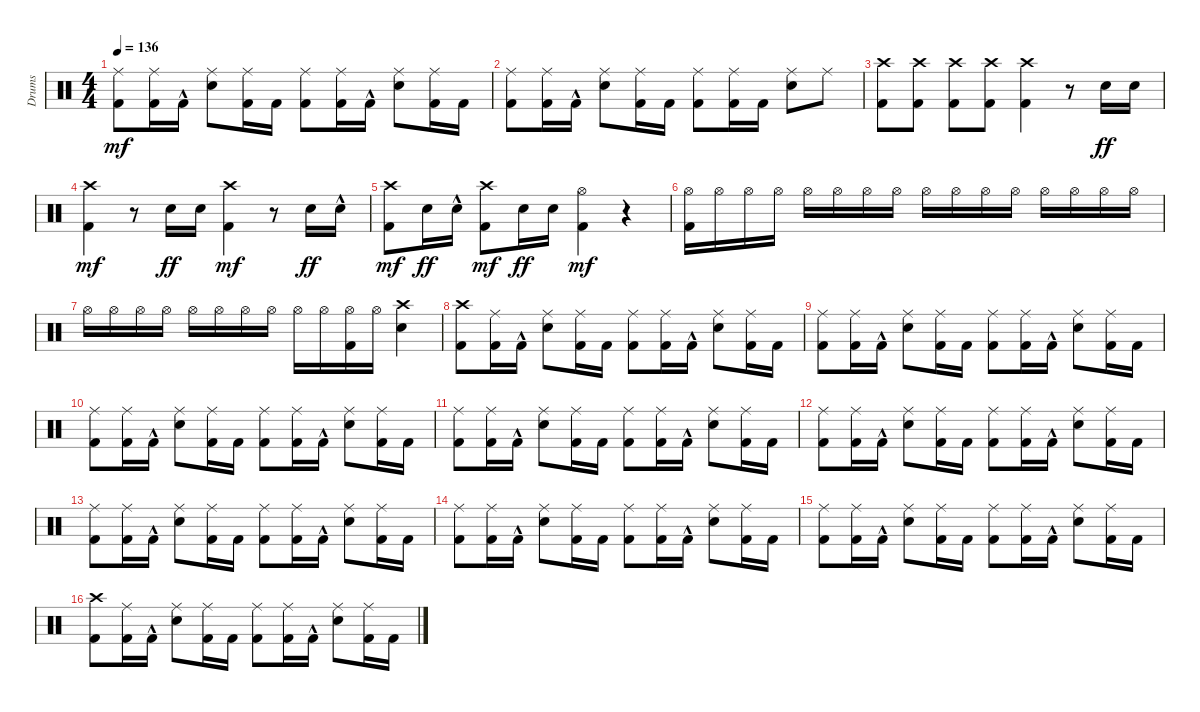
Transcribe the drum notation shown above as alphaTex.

\track ("Drums" "Drums") {instrument percussion}
\staff {score}
\articulation defaults
\ts (4 4)
\tempo 136
\clef neutral
\ks c
("Kick (hit) 2" "Ride (middle)").8{dy mf} ("Kick (hit) 2" "Ride (middle)").16 "Kick (hit) 2"{hac}.16 ("Snare (hit) 2" "Ride (middle)").8 ("Kick (hit) 2" "Ride (middle)").16 "Kick (hit) 2".16 ("Kick (hit) 2" "Ride (middle)").8 ("Kick (hit) 2" "Ride (middle)").16 "Kick (hit) 2"{hac}.16 ("Snare (hit) 2" "Ride (middle)").8 ("Kick (hit) 2" "Ride (middle)").16 "Kick (hit) 2".16 |
("Kick (hit) 2" "Ride (middle)").8 ("Kick (hit) 2" "Ride (middle)").16 "Kick (hit) 2"{hac}.16 ("Snare (hit) 2" "Ride (middle)").8 ("Kick (hit) 2" "Ride (middle)").16 "Kick (hit) 2".16 ("Kick (hit) 2" "Ride (middle)").8 ("Kick (hit) 2" "Ride (middle)").16 "Kick (hit) 2".16 ("Snare (hit) 2" "Ride (middle)").8 "Ride (middle)".8 |
("Kick (hit) 2" "Crash high (hit)").8 ("Kick (hit) 2" "Crash high (hit)").8 ("Kick (hit) 2" "Crash high (hit)").8 ("Kick (hit) 2" "Crash high (hit)").8 ("Kick (hit) 2" "Crash high (hit)").4 r.8 "Snare (hit) 2".16{dy ff} "Snare (hit) 2".16 |
("Kick (hit) 2" "Crash high (hit)").4{dy mf} r.8 "Snare (hit) 2".16{dy ff} "Snare (hit) 2".16 ("Kick (hit) 2" "Crash high (hit)").4{dy mf} r.8 "Snare (hit) 2".16{dy ff} "Snare (hit) 2"{hac}.16 |
("Kick (hit) 2" "Crash high (hit)").8{dy mf} "Snare (hit) 2".16{dy ff} "Snare (hit) 2"{hac}.16 ("Kick (hit) 2" "Crash high (hit)").8{dy mf} "Snare (hit) 2".16{dy ff} "Snare (hit) 2".16 ("Kick (hit) 2" "Hi-Hat (open)").4{dy mf} r.4 |
("Kick (hit) 2" "Hi-Hat (open)").16 "Hi-Hat (open)".16 "Hi-Hat (open)".16 "Hi-Hat (open)".16 "Hi-Hat (open)".16 "Hi-Hat (open)".16 "Hi-Hat (open)".16 "Hi-Hat (open)".16 "Hi-Hat (open)".16 "Hi-Hat (open)".16 "Hi-Hat (open)".16 "Hi-Hat (open)".16 "Hi-Hat (open)".16 "Hi-Hat (open)".16 "Hi-Hat (open)".16 "Hi-Hat (open)".16 |
"Hi-Hat (open)".16 "Hi-Hat (open)".16 "Hi-Hat (open)".16 "Hi-Hat (open)".16 "Hi-Hat (open)".16 "Hi-Hat (open)".16 "Hi-Hat (open)".16 "Hi-Hat (open)".16 "Hi-Hat (open)".16 "Hi-Hat (open)".16 ("Kick (hit) 2" "Hi-Hat (open)").16 "Hi-Hat (open)".16 ("Snare (hit) 2" "Crash high (hit)").4 |
("Kick (hit) 2" "Crash high (hit)").8 ("Kick (hit) 2" "Ride (middle)").16 "Kick (hit) 2"{hac}.16 ("Snare (hit) 2" "Ride (middle)").8 ("Kick (hit) 2" "Ride (middle)").16 "Kick (hit) 2".16 ("Kick (hit) 2" "Ride (middle)").8 ("Kick (hit) 2" "Ride (middle)").16 "Kick (hit) 2"{hac}.16 ("Snare (hit) 2" "Ride (middle)").8 ("Kick (hit) 2" "Ride (middle)").16 "Kick (hit) 2".16 |
("Kick (hit) 2" "Ride (middle)").8 ("Kick (hit) 2" "Ride (middle)").16 "Kick (hit) 2"{hac}.16 ("Snare (hit) 2" "Ride (middle)").8 ("Kick (hit) 2" "Ride (middle)").16 "Kick (hit) 2".16 ("Kick (hit) 2" "Ride (middle)").8 ("Kick (hit) 2" "Ride (middle)").16 "Kick (hit) 2"{hac}.16 ("Snare (hit) 2" "Ride (middle)").8 ("Kick (hit) 2" "Ride (middle)").16 "Kick (hit) 2".16 |
("Kick (hit) 2" "Ride (middle)").8 ("Kick (hit) 2" "Ride (middle)").16 "Kick (hit) 2"{hac}.16 ("Snare (hit) 2" "Ride (middle)").8 ("Kick (hit) 2" "Ride (middle)").16 "Kick (hit) 2".16 ("Kick (hit) 2" "Ride (middle)").8 ("Kick (hit) 2" "Ride (middle)").16 "Kick (hit) 2"{hac}.16 ("Snare (hit) 2" "Ride (middle)").8 ("Kick (hit) 2" "Ride (middle)").16 "Kick (hit) 2".16 |
("Kick (hit) 2" "Ride (middle)").8 ("Kick (hit) 2" "Ride (middle)").16 "Kick (hit) 2"{hac}.16 ("Snare (hit) 2" "Ride (middle)").8 ("Kick (hit) 2" "Ride (middle)").16 "Kick (hit) 2".16 ("Kick (hit) 2" "Ride (middle)").8 ("Kick (hit) 2" "Ride (middle)").16 "Kick (hit) 2"{hac}.16 ("Snare (hit) 2" "Ride (middle)").8 ("Kick (hit) 2" "Ride (middle)").16 "Kick (hit) 2".16 |
("Kick (hit) 2" "Ride (middle)").8 ("Kick (hit) 2" "Ride (middle)").16 "Kick (hit) 2"{hac}.16 ("Snare (hit) 2" "Ride (middle)").8 ("Kick (hit) 2" "Ride (middle)").16 "Kick (hit) 2".16 ("Kick (hit) 2" "Ride (middle)").8 ("Kick (hit) 2" "Ride (middle)").16 "Kick (hit) 2"{hac}.16 ("Snare (hit) 2" "Ride (middle)").8 ("Kick (hit) 2" "Ride (middle)").16 "Kick (hit) 2".16 |
("Kick (hit) 2" "Ride (middle)").8 ("Kick (hit) 2" "Ride (middle)").16 "Kick (hit) 2"{hac}.16 ("Snare (hit) 2" "Ride (middle)").8 ("Kick (hit) 2" "Ride (middle)").16 "Kick (hit) 2".16 ("Kick (hit) 2" "Ride (middle)").8 ("Kick (hit) 2" "Ride (middle)").16 "Kick (hit) 2"{hac}.16 ("Snare (hit) 2" "Ride (middle)").8 ("Kick (hit) 2" "Ride (middle)").16 "Kick (hit) 2".16 |
("Kick (hit) 2" "Ride (middle)").8 ("Kick (hit) 2" "Ride (middle)").16 "Kick (hit) 2"{hac}.16 ("Snare (hit) 2" "Ride (middle)").8 ("Kick (hit) 2" "Ride (middle)").16 "Kick (hit) 2".16 ("Kick (hit) 2" "Ride (middle)").8 ("Kick (hit) 2" "Ride (middle)").16 "Kick (hit) 2"{hac}.16 ("Snare (hit) 2" "Ride (middle)").8 ("Kick (hit) 2" "Ride (middle)").16 "Kick (hit) 2".16 |
("Kick (hit) 2" "Ride (middle)").8 ("Kick (hit) 2" "Ride (middle)").16 "Kick (hit) 2"{hac}.16 ("Snare (hit) 2" "Ride (middle)").8 ("Kick (hit) 2" "Ride (middle)").16 "Kick (hit) 2".16 ("Kick (hit) 2" "Ride (middle)").8 ("Kick (hit) 2" "Ride (middle)").16 "Kick (hit) 2"{hac}.16 ("Snare (hit) 2" "Ride (middle)").8 ("Kick (hit) 2" "Ride (middle)").16 "Kick (hit) 2".16 |
("Kick (hit) 2" "Crash high (hit)").8 ("Kick (hit) 2" "Ride (middle)").16 "Kick (hit) 2"{hac}.16 ("Snare (hit) 2" "Ride (middle)").8 ("Kick (hit) 2" "Ride (middle)").16 "Kick (hit) 2".16 ("Kick (hit) 2" "Ride (middle)").8 ("Kick (hit) 2" "Ride (middle)").16 "Kick (hit) 2"{hac}.16 ("Snare (hit) 2" "Ride (middle)").8 ("Kick (hit) 2" "Ride (middle)").16 "Kick (hit) 2".16
